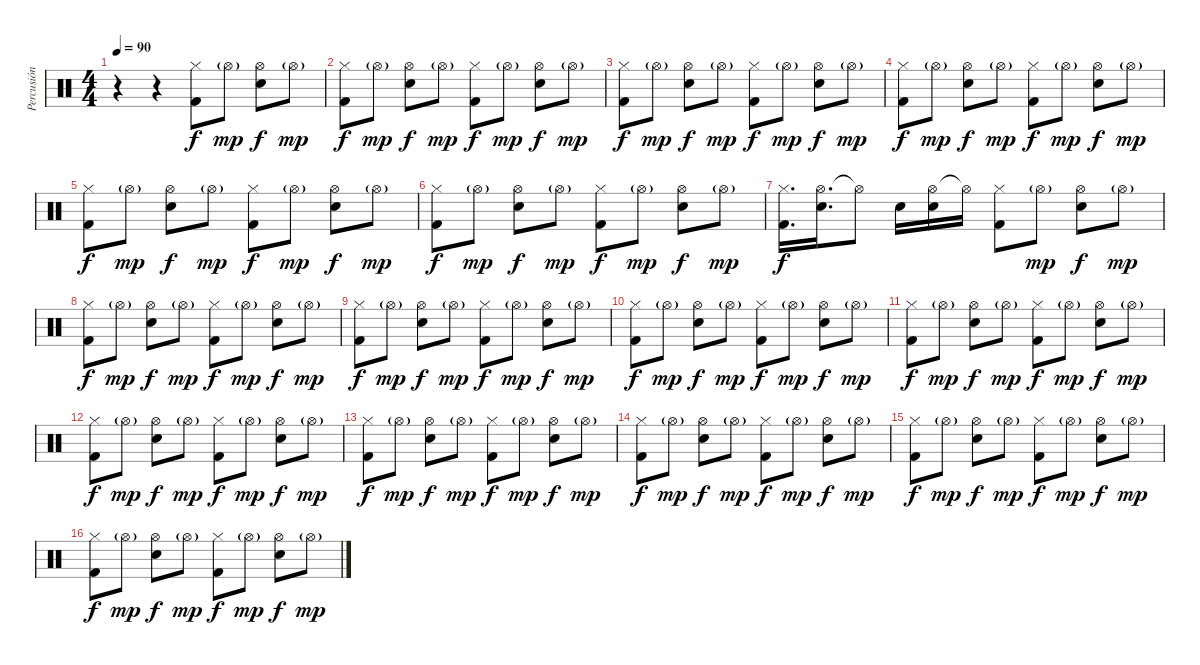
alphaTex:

\track ("Percusión" "Percusión") {instrument percussion}
\staff {score}
\articulation defaults
\ts (4 4)
\tempo 90
\clef neutral
\ks c
r.4{dy f} r.4 ("Hi-Hat (closed)" "Kick (hit) 2").8 "Hi-Hat (open)"{g}.8{dy mp} ("Hi-Hat (open)" "Snare (hit) 2").8{dy f} "Hi-Hat (open)"{g}.8{dy mp} |
("Hi-Hat (closed)" "Kick (hit) 2").8{dy f} "Hi-Hat (open)"{g}.8{dy mp} ("Hi-Hat (open)" "Snare (hit) 2").8{dy f} "Hi-Hat (open)"{g}.8{dy mp} ("Hi-Hat (closed)" "Kick (hit) 2").8{dy f} "Hi-Hat (open)"{g}.8{dy mp} ("Hi-Hat (open)" "Snare (hit) 2").8{dy f} "Hi-Hat (open)"{g}.8{dy mp} |
("Hi-Hat (closed)" "Kick (hit) 2").8{dy f} "Hi-Hat (open)"{g}.8{dy mp} ("Hi-Hat (open)" "Snare (hit) 2").8{dy f} "Hi-Hat (open)"{g}.8{dy mp} ("Hi-Hat (closed)" "Kick (hit) 2").8{dy f} "Hi-Hat (open)"{g}.8{dy mp} ("Hi-Hat (open)" "Snare (hit) 2").8{dy f} "Hi-Hat (open)"{g}.8{dy mp} |
("Hi-Hat (closed)" "Kick (hit) 2").8{dy f} "Hi-Hat (open)"{g}.8{dy mp} ("Hi-Hat (open)" "Snare (hit) 2").8{dy f} "Hi-Hat (open)"{g}.8{dy mp} ("Hi-Hat (closed)" "Kick (hit) 2").8{dy f} "Hi-Hat (open)"{g}.8{dy mp} ("Hi-Hat (open)" "Snare (hit) 2").8{dy f} "Hi-Hat (open)"{g}.8{dy mp} |
("Hi-Hat (closed)" "Kick (hit) 2").8{dy f} "Hi-Hat (open)"{g}.8{dy mp} ("Hi-Hat (open)" "Snare (hit) 2").8{dy f} "Hi-Hat (open)"{g}.8{dy mp} ("Hi-Hat (closed)" "Kick (hit) 2").8{dy f} "Hi-Hat (open)"{g}.8{dy mp} ("Hi-Hat (open)" "Snare (hit) 2").8{dy f} "Hi-Hat (open)"{g}.8{dy mp} |
("Hi-Hat (closed)" "Kick (hit) 2").8{dy f} "Hi-Hat (open)"{g}.8{dy mp} ("Hi-Hat (open)" "Snare (hit) 2").8{dy f} "Hi-Hat (open)"{g}.8{dy mp} ("Hi-Hat (closed)" "Kick (hit) 2").8{dy f} "Hi-Hat (open)"{g}.8{dy mp} ("Hi-Hat (open)" "Snare (hit) 2").8{dy f} "Hi-Hat (open)"{g}.8{dy mp} |
("Hi-Hat (closed)" "Kick (hit) 2").16{d dy f} ("Hi-Hat (open)" "Snare (hit) 2").16{d} "Hi-Hat (open)"{t}.8 "Snare (hit) 2".16 ("Hi-Hat (open)" "Snare (hit) 2").16 "Hi-Hat (open)"{t}.16 ("Hi-Hat (closed)" "Kick (hit) 2").8 "Hi-Hat (open)"{g}.8{dy mp} ("Hi-Hat (open)" "Snare (hit) 2").8{dy f} "Hi-Hat (open)"{g}.8{dy mp} |
("Hi-Hat (closed)" "Kick (hit) 2").8{dy f} "Hi-Hat (open)"{g}.8{dy mp} ("Hi-Hat (open)" "Snare (hit) 2").8{dy f} "Hi-Hat (open)"{g}.8{dy mp} ("Hi-Hat (closed)" "Kick (hit) 2").8{dy f} "Hi-Hat (open)"{g}.8{dy mp} ("Hi-Hat (open)" "Snare (hit) 2").8{dy f} "Hi-Hat (open)"{g}.8{dy mp} |
("Hi-Hat (closed)" "Kick (hit) 2").8{dy f} "Hi-Hat (open)"{g}.8{dy mp} ("Hi-Hat (open)" "Snare (hit) 2").8{dy f} "Hi-Hat (open)"{g}.8{dy mp} ("Hi-Hat (closed)" "Kick (hit) 2").8{dy f} "Hi-Hat (open)"{g}.8{dy mp} ("Hi-Hat (open)" "Snare (hit) 2").8{dy f} "Hi-Hat (open)"{g}.8{dy mp} |
("Hi-Hat (closed)" "Kick (hit) 2").8{dy f} "Hi-Hat (open)"{g}.8{dy mp} ("Hi-Hat (open)" "Snare (hit) 2").8{dy f} "Hi-Hat (open)"{g}.8{dy mp} ("Hi-Hat (closed)" "Kick (hit) 2").8{dy f} "Hi-Hat (open)"{g}.8{dy mp} ("Hi-Hat (open)" "Snare (hit) 2").8{dy f} "Hi-Hat (open)"{g}.8{dy mp} |
("Hi-Hat (closed)" "Kick (hit) 2").8{dy f} "Hi-Hat (open)"{g}.8{dy mp} ("Hi-Hat (open)" "Snare (hit) 2").8{dy f} "Hi-Hat (open)"{g}.8{dy mp} ("Hi-Hat (closed)" "Kick (hit) 2").8{dy f} "Hi-Hat (open)"{g}.8{dy mp} ("Hi-Hat (open)" "Snare (hit) 2").8{dy f} "Hi-Hat (open)"{g}.8{dy mp} |
("Hi-Hat (closed)" "Kick (hit) 2").8{dy f} "Hi-Hat (open)"{g}.8{dy mp} ("Hi-Hat (open)" "Snare (hit) 2").8{dy f} "Hi-Hat (open)"{g}.8{dy mp} ("Hi-Hat (closed)" "Kick (hit) 2").8{dy f} "Hi-Hat (open)"{g}.8{dy mp} ("Hi-Hat (open)" "Snare (hit) 2").8{dy f} "Hi-Hat (open)"{g}.8{dy mp} |
("Hi-Hat (closed)" "Kick (hit) 2").8{dy f} "Hi-Hat (open)"{g}.8{dy mp} ("Hi-Hat (open)" "Snare (hit) 2").8{dy f} "Hi-Hat (open)"{g}.8{dy mp} ("Hi-Hat (closed)" "Kick (hit) 2").8{dy f} "Hi-Hat (open)"{g}.8{dy mp} ("Hi-Hat (open)" "Snare (hit) 2").8{dy f} "Hi-Hat (open)"{g}.8{dy mp} |
("Hi-Hat (closed)" "Kick (hit) 2").8{dy f} "Hi-Hat (open)"{g}.8{dy mp} ("Hi-Hat (open)" "Snare (hit) 2").8{dy f} "Hi-Hat (open)"{g}.8{dy mp} ("Hi-Hat (closed)" "Kick (hit) 2").8{dy f} "Hi-Hat (open)"{g}.8{dy mp} ("Hi-Hat (open)" "Snare (hit) 2").8{dy f} "Hi-Hat (open)"{g}.8{dy mp} |
("Hi-Hat (closed)" "Kick (hit) 2").8{dy f} "Hi-Hat (open)"{g}.8{dy mp} ("Hi-Hat (open)" "Snare (hit) 2").8{dy f} "Hi-Hat (open)"{g}.8{dy mp} ("Hi-Hat (closed)" "Kick (hit) 2").8{dy f} "Hi-Hat (open)"{g}.8{dy mp} ("Hi-Hat (open)" "Snare (hit) 2").8{dy f} "Hi-Hat (open)"{g}.8{dy mp} |
("Hi-Hat (closed)" "Kick (hit) 2").8{dy f} "Hi-Hat (open)"{g}.8{dy mp} ("Hi-Hat (open)" "Snare (hit) 2").8{dy f} "Hi-Hat (open)"{g}.8{dy mp} ("Hi-Hat (closed)" "Kick (hit) 2").8{dy f} "Hi-Hat (open)"{g}.8{dy mp} ("Hi-Hat (open)" "Snare (hit) 2").8{dy f} "Hi-Hat (open)"{g}.8{dy mp}
